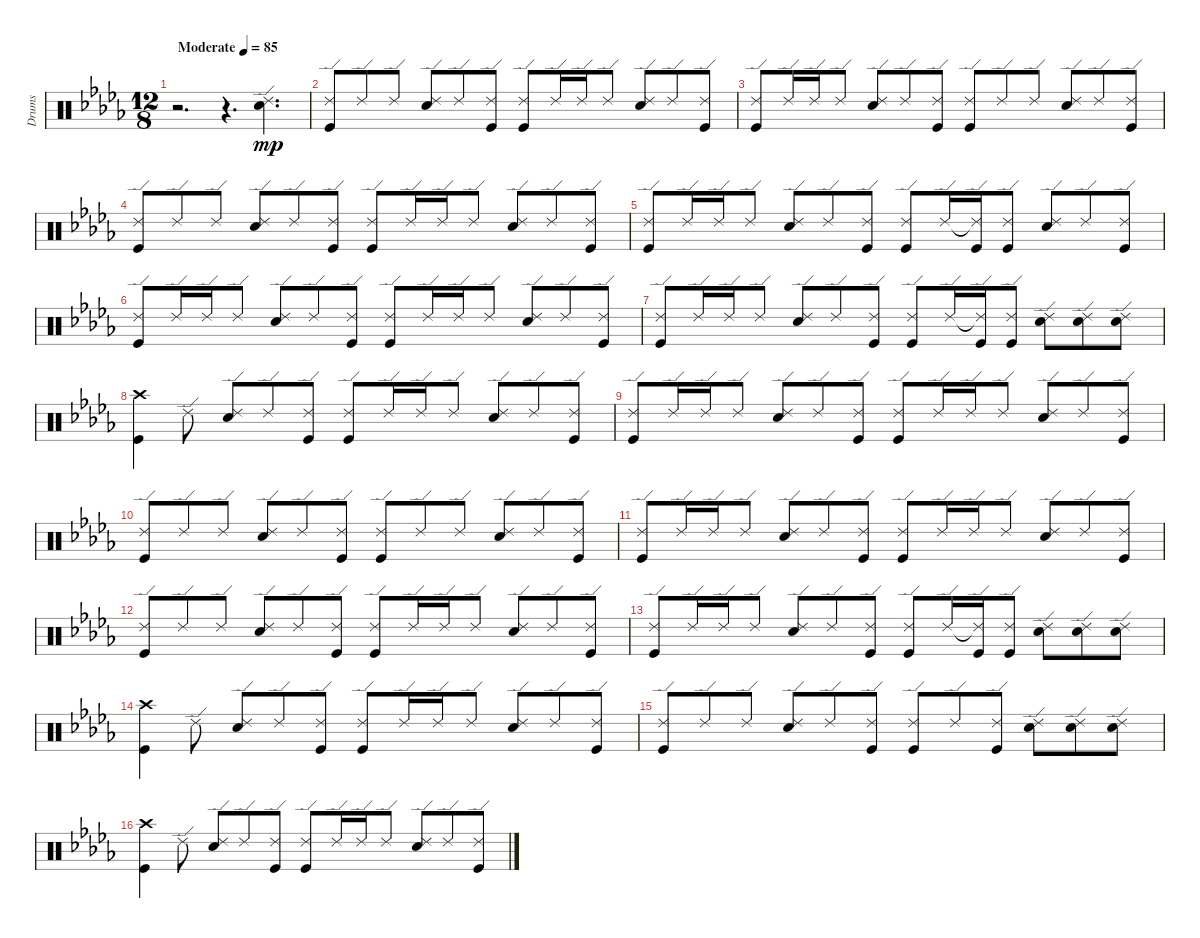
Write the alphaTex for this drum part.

\track ("Drums" "Drums") {instrument percussion}
\staff {score}
\articulation defaults
\ts (12 8)
\tempo (85 "Moderate")
\clef neutral
\ks bbminor
r.2{d dy mp} r.4{d} ("Ride (edge) 2" "Snare (hit) 2").4{d} |
("Ride (edge) 2" "Kick (hit)").8 "Ride (edge) 2".8 "Ride (edge) 2".8 ("Ride (edge) 2" "Snare (hit) 2").8 "Ride (edge) 2".8 ("Ride (edge) 2" "Kick (hit)").8 ("Ride (edge) 2" "Kick (hit)").8 "Ride (edge) 2".16 "Ride (edge) 2".16 "Ride (edge) 2".8 ("Ride (edge) 2" "Snare (hit) 2").8 "Ride (edge) 2".8 ("Ride (edge) 2" "Kick (hit)").8 |
("Ride (edge) 2" "Kick (hit)").8 "Ride (edge) 2".16 "Ride (edge) 2".16 "Ride (edge) 2".8 ("Ride (edge) 2" "Snare (hit) 2").8 "Ride (edge) 2".8 ("Ride (edge) 2" "Kick (hit)").8 ("Ride (edge) 2" "Kick (hit)").8 "Ride (edge) 2".8 "Ride (edge) 2".8 ("Ride (edge) 2" "Snare (hit) 2").8 "Ride (edge) 2".8 ("Ride (edge) 2" "Kick (hit)").8 |
("Ride (edge) 2" "Kick (hit)").8 "Ride (edge) 2".8 "Ride (edge) 2".8 ("Ride (edge) 2" "Snare (hit) 2").8 "Ride (edge) 2".8 ("Ride (edge) 2" "Kick (hit)").8 ("Ride (edge) 2" "Kick (hit)").8 "Ride (edge) 2".16 "Ride (edge) 2".16 "Ride (edge) 2".8 ("Ride (edge) 2" "Snare (hit) 2").8 "Ride (edge) 2".8 ("Ride (edge) 2" "Kick (hit)").8 |
("Ride (edge) 2" "Kick (hit)").8 "Ride (edge) 2".16 "Ride (edge) 2".16 "Ride (edge) 2".8 ("Ride (edge) 2" "Snare (hit) 2").8 "Ride (edge) 2".8 ("Ride (edge) 2" "Kick (hit)").8 ("Ride (edge) 2" "Kick (hit)").8 "Ride (edge) 2".16 ("Ride (edge) 2"{t} "Kick (hit)").16 ("Ride (edge) 2" "Kick (hit)").8 ("Ride (edge) 2" "Snare (hit) 2").8 "Ride (edge) 2".8 ("Ride (edge) 2" "Kick (hit)").8 |
("Ride (edge) 2" "Kick (hit)").8 "Ride (edge) 2".16 "Ride (edge) 2".16 "Ride (edge) 2".8 ("Ride (edge) 2" "Snare (hit) 2").8 "Ride (edge) 2".8 ("Ride (edge) 2" "Kick (hit)").8 ("Ride (edge) 2" "Kick (hit)").8 "Ride (edge) 2".16 "Ride (edge) 2".16 "Ride (edge) 2".8 ("Ride (edge) 2" "Snare (hit) 2").8 "Ride (edge) 2".8 ("Ride (edge) 2" "Kick (hit)").8 |
("Ride (edge) 2" "Kick (hit)").8 "Ride (edge) 2".16 "Ride (edge) 2".16 "Ride (edge) 2".8 ("Ride (edge) 2" "Snare (hit) 2").8 "Ride (edge) 2".8 ("Ride (edge) 2" "Kick (hit)").8 ("Ride (edge) 2" "Kick (hit)").8 "Ride (edge) 2".16 ("Ride (edge) 2"{t} "Kick (hit)").16 ("Ride (edge) 2" "Kick (hit)").8 ("Ride (edge) 2" "Snare (hit) 2").8 ("Ride (edge) 2" "Snare (hit) 2").8 ("Ride (edge) 2" "Snare (hit) 2").8 |
("Crash high (hit)" "Kick (hit)").4 "Ride (edge) 2".8 ("Ride (edge) 2" "Snare (hit) 2").8 "Ride (edge) 2".8 ("Ride (edge) 2" "Kick (hit)").8 ("Ride (edge) 2" "Kick (hit)").8 "Ride (edge) 2".16 "Ride (edge) 2".16 "Ride (edge) 2".8 ("Ride (edge) 2" "Snare (hit) 2").8 "Ride (edge) 2".8 ("Ride (edge) 2" "Kick (hit)").8 |
("Ride (edge) 2" "Kick (hit)").8 "Ride (edge) 2".16 "Ride (edge) 2".16 "Ride (edge) 2".8 ("Ride (edge) 2" "Snare (hit) 2").8 "Ride (edge) 2".8 ("Ride (edge) 2" "Kick (hit)").8 ("Ride (edge) 2" "Kick (hit)").8 "Ride (edge) 2".16 "Ride (edge) 2".16 "Ride (edge) 2".8 ("Ride (edge) 2" "Snare (hit) 2").8 "Ride (edge) 2".8 ("Ride (edge) 2" "Kick (hit)").8 |
("Ride (edge) 2" "Kick (hit)").8 "Ride (edge) 2".8 "Ride (edge) 2".8 ("Ride (edge) 2" "Snare (hit) 2").8 "Ride (edge) 2".8 ("Ride (edge) 2" "Kick (hit)").8 ("Ride (edge) 2" "Kick (hit)").8 "Ride (edge) 2".8 "Ride (edge) 2".8 ("Ride (edge) 2" "Snare (hit) 2").8 "Ride (edge) 2".8 ("Ride (edge) 2" "Kick (hit)").8 |
("Ride (edge) 2" "Kick (hit)").8 "Ride (edge) 2".16 "Ride (edge) 2".16 "Ride (edge) 2".8 ("Ride (edge) 2" "Snare (hit) 2").8 "Ride (edge) 2".8 ("Ride (edge) 2" "Kick (hit)").8 ("Ride (edge) 2" "Kick (hit)").8 "Ride (edge) 2".16 "Ride (edge) 2".16 "Ride (edge) 2".8 ("Ride (edge) 2" "Snare (hit) 2").8 "Ride (edge) 2".8 ("Ride (edge) 2" "Kick (hit)").8 |
("Ride (edge) 2" "Kick (hit)").8 "Ride (edge) 2".8 "Ride (edge) 2".8 ("Ride (edge) 2" "Snare (hit) 2").8 "Ride (edge) 2".8 ("Ride (edge) 2" "Kick (hit)").8 ("Ride (edge) 2" "Kick (hit)").8 "Ride (edge) 2".16 "Ride (edge) 2".16 "Ride (edge) 2".8 ("Ride (edge) 2" "Snare (hit) 2").8 "Ride (edge) 2".8 ("Ride (edge) 2" "Kick (hit)").8 |
("Ride (edge) 2" "Kick (hit)").8 "Ride (edge) 2".16 "Ride (edge) 2".16 "Ride (edge) 2".8 ("Ride (edge) 2" "Snare (hit) 2").8 "Ride (edge) 2".8 ("Ride (edge) 2" "Kick (hit)").8 ("Ride (edge) 2" "Kick (hit)").8 "Ride (edge) 2".16 ("Ride (edge) 2"{t} "Kick (hit)").16 ("Ride (edge) 2" "Kick (hit)").8 ("Ride (edge) 2" "Snare (hit) 2").8 ("Ride (edge) 2" "Snare (hit) 2").8 ("Ride (edge) 2" "Snare (hit) 2").8 |
("Crash high (hit)" "Kick (hit)").4 "Ride (edge) 2".8 ("Ride (edge) 2" "Snare (hit) 2").8 "Ride (edge) 2".8 ("Ride (edge) 2" "Kick (hit)").8 ("Ride (edge) 2" "Kick (hit)").8 "Ride (edge) 2".16 "Ride (edge) 2".16 "Ride (edge) 2".8 ("Ride (edge) 2" "Snare (hit) 2").8 "Ride (edge) 2".8 ("Ride (edge) 2" "Kick (hit)").8 |
("Ride (edge) 2" "Kick (hit)").8 "Ride (edge) 2".8 "Ride (edge) 2".8 ("Ride (edge) 2" "Snare (hit) 2").8 "Ride (edge) 2".8 ("Ride (edge) 2" "Kick (hit)").8 ("Ride (edge) 2" "Kick (hit)").8 "Ride (edge) 2".8 ("Ride (edge) 2" "Kick (hit)").8 ("Ride (edge) 2" "Snare (hit) 2").8 ("Ride (edge) 2" "Snare (hit) 2").8 ("Ride (edge) 2" "Snare (hit) 2").8 |
("Crash high (hit)" "Kick (hit)").4 "Ride (edge) 2".8 ("Ride (edge) 2" "Snare (hit) 2").8 "Ride (edge) 2".8 ("Ride (edge) 2" "Kick (hit)").8 ("Ride (edge) 2" "Kick (hit)").8 "Ride (edge) 2".16 "Ride (edge) 2".16 "Ride (edge) 2".8 ("Ride (edge) 2" "Snare (hit) 2").8 "Ride (edge) 2".8 ("Ride (edge) 2" "Kick (hit)").8
